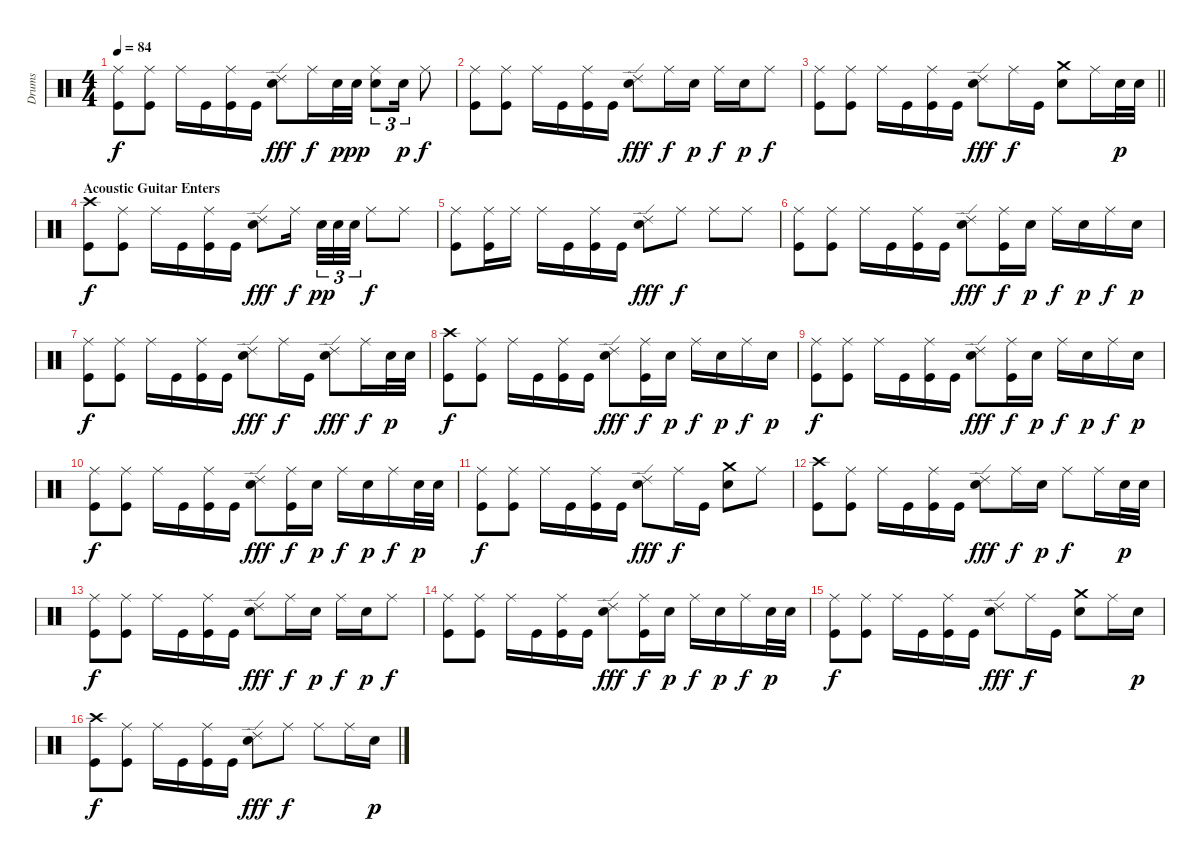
\track ("Drums" "Drums") {instrument percussion}
\staff {score}
\articulation defaults
\ts (4 4)
\tempo 84
\clef neutral
\ks c
("Ride (middle)" "Kick (hit)").8{dy f} ("Ride (middle)" "Kick (hit)").8 "Ride (middle)".16 "Kick (hit)".16 ("Ride (middle)" "Kick (hit)").16 "Kick (hit)".16 ("Ride (edge) 2" "Electric Snare (hit)").8{dy fff} "Ride (middle)".16{dy f} "Electric Snare (hit)".32{dy p} "Electric Snare (hit)".32{dy pp} ("Ride (middle)" "Electric Snare (hit)").8{tu (3 2)} "Electric Snare (hit)".16{tu (3 2) dy p} "Ride (middle)".8{dy f} |
("Ride (middle)" "Kick (hit)").8 ("Ride (middle)" "Kick (hit)").8 "Ride (middle)".16 "Kick (hit)".16 ("Ride (middle)" "Kick (hit)").16 "Kick (hit)".16 ("Ride (edge) 2" "Electric Snare (hit)").8{dy fff} "Ride (middle)".16{dy f} "Electric Snare (hit)".16{dy p} "Ride (middle)".16{dy f} "Electric Snare (hit)".16{dy p} "Ride (middle)".8{dy f} |
\barLineRight lightlight
("Ride (middle)" "Kick (hit)").8 ("Ride (middle)" "Kick (hit)").8 "Ride (middle)".16 "Kick (hit)".16 ("Ride (middle)" "Kick (hit)").16 "Kick (hit)".16 ("Ride (edge) 2" "Electric Snare (hit)").8{dy fff} "Ride (middle)".16{dy f} "Kick (hit)".16 ("Crash medium (hit)" "Electric Snare (hit)").8 "Ride (middle)".16 "Electric Snare (hit)".32{dy p} "Electric Snare (hit)".32 |
\section ("" "Acoustic Guitar Enters")
("Crash high (hit)" "Kick (hit)").8{dy f} ("Ride (middle)" "Kick (hit)").8 "Ride (middle)".16 "Kick (hit)".16 ("Ride (middle)" "Kick (hit)").16 "Kick (hit)".16 ("Ride (edge) 2" "Electric Snare (hit)").8{dy fff} "Ride (middle)".16{dy f beam splitsecondary} "Electric Snare (hit)".32{tu (3 2) dy pp} "Electric Snare (hit)".32{tu (3 2)} "Electric Snare (hit)".32{tu (3 2)} "Ride (middle)".8{dy f} "Ride (middle)".8 |
("Ride (middle)" "Kick (hit)").8 ("Ride (middle)" "Kick (hit)").16 "Ride (middle)".16 "Ride (middle)".16 "Kick (hit)".16 ("Ride (middle)" "Kick (hit)").16 "Kick (hit)".16 ("Ride (edge) 2" "Electric Snare (hit)").8{dy fff} "Ride (middle)".8{dy f} "Ride (middle)".8 "Ride (middle)".8 |
("Ride (middle)" "Kick (hit)").8 ("Ride (middle)" "Kick (hit)").8 "Ride (middle)".16 "Kick (hit)".16 ("Ride (middle)" "Kick (hit)").16 "Kick (hit)".16 ("Ride (edge) 2" "Electric Snare (hit)").8{dy fff} ("Ride (middle)" "Kick (hit)").16{dy f} "Electric Snare (hit)".16{dy p} "Ride (middle)".16{dy f} "Electric Snare (hit)".16{dy p} "Ride (middle)".16{dy f} "Electric Snare (hit)".16{dy p} |
("Ride (middle)" "Kick (hit)").8{dy f} ("Ride (middle)" "Kick (hit)").8 "Ride (middle)".16 "Kick (hit)".16 ("Ride (middle)" "Kick (hit)").16 "Kick (hit)".16 ("Ride (edge) 2" "Electric Snare (hit)").8{dy fff} "Ride (middle)".16{dy f} "Kick (hit)".16 ("Ride (edge) 2" "Electric Snare (hit)").8{dy fff} "Ride (middle)".16{dy f} "Electric Snare (hit)".32{dy p} "Electric Snare (hit)".32 |
("Crash high (hit)" "Kick (hit)").8{dy f} ("Ride (middle)" "Kick (hit)").8 "Ride (middle)".16 "Kick (hit)".16 ("Ride (middle)" "Kick (hit)").16 "Kick (hit)".16 ("Ride (edge) 2" "Electric Snare (hit)").8{dy fff} ("Ride (middle)" "Kick (hit)").16{dy f} "Electric Snare (hit)".16{dy p} "Ride (middle)".16{dy f} "Electric Snare (hit)".16{dy p} "Ride (middle)".16{dy f} "Electric Snare (hit)".16{dy p} |
("Ride (middle)" "Kick (hit)").8{dy f} ("Ride (middle)" "Kick (hit)").8 "Ride (middle)".16 "Kick (hit)".16 ("Ride (middle)" "Kick (hit)").16 "Kick (hit)".16 ("Ride (edge) 2" "Electric Snare (hit)").8{dy fff} ("Ride (middle)" "Kick (hit)").16{dy f} "Electric Snare (hit)".16{dy p} "Ride (middle)".16{dy f} "Electric Snare (hit)".16{dy p} "Ride (middle)".16{dy f} "Electric Snare (hit)".16{dy p} |
("Ride (middle)" "Kick (hit)").8{dy f} ("Ride (middle)" "Kick (hit)").8 "Ride (middle)".16 "Kick (hit)".16 ("Ride (middle)" "Kick (hit)").16 "Kick (hit)".16 ("Ride (edge) 2" "Electric Snare (hit)").8{dy fff} ("Ride (middle)" "Kick (hit)").16{dy f} "Electric Snare (hit)".16{dy p} "Ride (middle)".16{dy f} "Electric Snare (hit)".16{dy p} "Ride (middle)".16{dy f} "Electric Snare (hit)".32{dy p} "Electric Snare (hit)".32 |
("Ride (middle)" "Kick (hit)").8{dy f} ("Ride (middle)" "Kick (hit)").8 "Ride (middle)".16 "Kick (hit)".16 ("Ride (middle)" "Kick (hit)").16 "Kick (hit)".16 ("Ride (edge) 2" "Electric Snare (hit)").8{dy fff} "Ride (middle)".16{dy f} "Kick (hit)".16 ("Crash medium (hit)" "Electric Snare (hit)").8 "Ride (middle)".8 |
("Crash high (hit)" "Kick (hit)").8 ("Ride (middle)" "Kick (hit)").8 "Ride (middle)".16 "Kick (hit)".16 ("Ride (middle)" "Kick (hit)").16 "Kick (hit)".16 ("Ride (edge) 2" "Electric Snare (hit)").8{dy fff} "Ride (middle)".16{dy f} "Electric Snare (hit)".16{dy p} "Ride (middle)".8{dy f} "Ride (middle)".16 "Electric Snare (hit)".32{dy p} "Electric Snare (hit)".32 |
("Ride (middle)" "Kick (hit)").8{dy f} ("Ride (middle)" "Kick (hit)").8 "Ride (middle)".16 "Kick (hit)".16 ("Ride (middle)" "Kick (hit)").16 "Kick (hit)".16 ("Ride (edge) 2" "Electric Snare (hit)").8{dy fff} "Ride (middle)".16{dy f} "Electric Snare (hit)".16{dy p} "Ride (middle)".16{dy f} "Electric Snare (hit)".16{dy p} "Ride (middle)".8{dy f} |
("Ride (middle)" "Kick (hit)").8 ("Ride (middle)" "Kick (hit)").8 "Ride (middle)".16 "Kick (hit)".16 ("Ride (middle)" "Kick (hit)").16 "Kick (hit)".16 ("Ride (edge) 2" "Electric Snare (hit)").8{dy fff} ("Ride (middle)" "Kick (hit)").16{dy f} "Electric Snare (hit)".16{dy p} "Ride (middle)".16{dy f} "Electric Snare (hit)".16{dy p} "Ride (middle)".16{dy f} "Electric Snare (hit)".32{dy p} "Electric Snare (hit)".32 |
("Ride (middle)" "Kick (hit)").8{dy f} ("Ride (middle)" "Kick (hit)").8 "Ride (middle)".16 "Kick (hit)".16 ("Ride (middle)" "Kick (hit)").16 "Kick (hit)".16 ("Ride (edge) 2" "Electric Snare (hit)").8{dy fff} "Ride (middle)".16{dy f} "Kick (hit)".16 ("Crash medium (hit)" "Electric Snare (hit)").8 "Ride (middle)".16 "Electric Snare (hit)".16{dy p} |
("Crash high (hit)" "Kick (hit)").8{dy f} ("Ride (middle)" "Kick (hit)").8 "Ride (middle)".16 "Kick (hit)".16 ("Ride (middle)" "Kick (hit)").16 "Kick (hit)".16 ("Ride (edge) 2" "Electric Snare (hit)").8{dy fff} "Ride (middle)".8{dy f} "Ride (middle)".8 "Ride (middle)".16 "Electric Snare (hit)".16{dy p}
